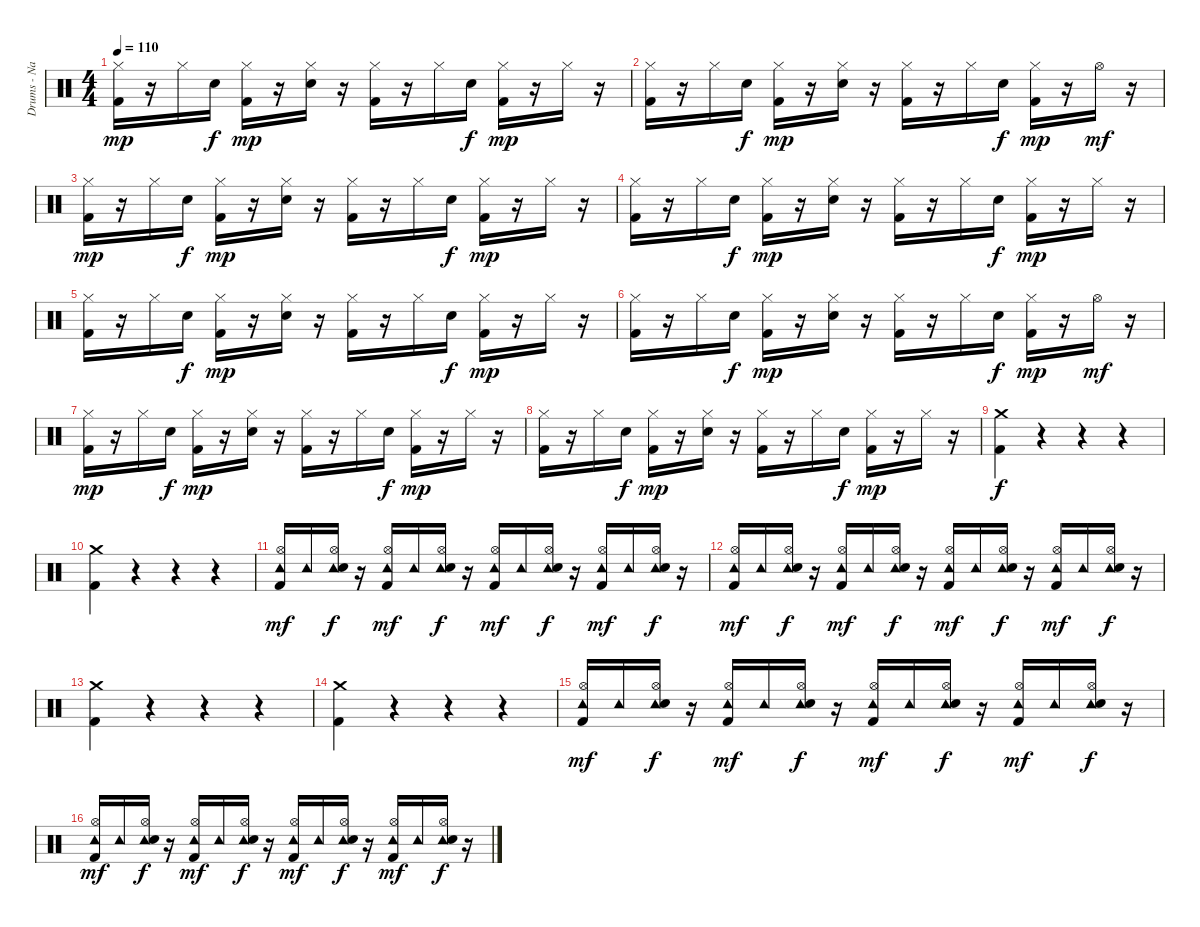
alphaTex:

\track ("Drums - Nathan" "Drums - Na") {instrument percussion}
\staff {score}
\articulation defaults
\ts (4 4)
\tempo 110
\clef neutral
\ks c
("Hi-Hat (closed)" "Kick (hit) 2").16{dy mp} r.16 "Hi-Hat (closed)".16 "Electric Snare (hit)".16{dy f} ("Hi-Hat (closed)" "Kick (hit) 2").16{dy mp} r.16 ("Hi-Hat (closed)" "Electric Snare (hit)").16 r.16 ("Hi-Hat (closed)" "Kick (hit) 2").16 r.16 "Hi-Hat (closed)".16 "Electric Snare (hit)".16{dy f} ("Hi-Hat (closed)" "Kick (hit) 2").16{dy mp} r.16 "Hi-Hat (closed)".16 r.16 |
("Hi-Hat (closed)" "Kick (hit) 2").16 r.16 "Hi-Hat (closed)".16 "Electric Snare (hit)".16{dy f} ("Hi-Hat (closed)" "Kick (hit) 2").16{dy mp} r.16 ("Hi-Hat (closed)" "Electric Snare (hit)").16 r.16 ("Hi-Hat (closed)" "Kick (hit) 2").16 r.16 "Hi-Hat (closed)".16 "Electric Snare (hit)".16{dy f} ("Hi-Hat (closed)" "Kick (hit) 2").16{dy mp} r.16 "Hi-Hat (open)".16{dy mf} r.16 |
("Hi-Hat (closed)" "Kick (hit) 2").16{dy mp} r.16 "Hi-Hat (closed)".16 "Electric Snare (hit)".16{dy f} ("Hi-Hat (closed)" "Kick (hit) 2").16{dy mp} r.16 ("Hi-Hat (closed)" "Electric Snare (hit)").16 r.16 ("Hi-Hat (closed)" "Kick (hit) 2").16 r.16 "Hi-Hat (closed)".16 "Electric Snare (hit)".16{dy f} ("Hi-Hat (closed)" "Kick (hit) 2").16{dy mp} r.16 "Hi-Hat (closed)".16 r.16 |
("Hi-Hat (closed)" "Kick (hit) 2").16 r.16 "Hi-Hat (closed)".16 "Electric Snare (hit)".16{dy f} ("Hi-Hat (closed)" "Kick (hit) 2").16{dy mp} r.16 ("Hi-Hat (closed)" "Electric Snare (hit)").16 r.16 ("Hi-Hat (closed)" "Kick (hit) 2").16 r.16 "Hi-Hat (closed)".16 "Electric Snare (hit)".16{dy f} ("Hi-Hat (closed)" "Kick (hit) 2").16{dy mp} r.16 "Hi-Hat (closed)".16 r.16 |
("Hi-Hat (closed)" "Kick (hit) 2").16 r.16 "Hi-Hat (closed)".16 "Electric Snare (hit)".16{dy f} ("Hi-Hat (closed)" "Kick (hit) 2").16{dy mp} r.16 ("Hi-Hat (closed)" "Electric Snare (hit)").16 r.16 ("Hi-Hat (closed)" "Kick (hit) 2").16 r.16 "Hi-Hat (closed)".16 "Electric Snare (hit)".16{dy f} ("Hi-Hat (closed)" "Kick (hit) 2").16{dy mp} r.16 "Hi-Hat (closed)".16 r.16 |
("Hi-Hat (closed)" "Kick (hit) 2").16 r.16 "Hi-Hat (closed)".16 "Electric Snare (hit)".16{dy f} ("Hi-Hat (closed)" "Kick (hit) 2").16{dy mp} r.16 ("Hi-Hat (closed)" "Electric Snare (hit)").16 r.16 ("Hi-Hat (closed)" "Kick (hit) 2").16 r.16 "Hi-Hat (closed)".16 "Electric Snare (hit)".16{dy f} ("Hi-Hat (closed)" "Kick (hit) 2").16{dy mp} r.16 "Hi-Hat (open)".16{dy mf} r.16 |
("Hi-Hat (closed)" "Kick (hit) 2").16{dy mp} r.16 "Hi-Hat (closed)".16 "Electric Snare (hit)".16{dy f} ("Hi-Hat (closed)" "Kick (hit) 2").16{dy mp} r.16 ("Hi-Hat (closed)" "Electric Snare (hit)").16 r.16 ("Hi-Hat (closed)" "Kick (hit) 2").16 r.16 "Hi-Hat (closed)".16 "Electric Snare (hit)".16{dy f} ("Hi-Hat (closed)" "Kick (hit) 2").16{dy mp} r.16 "Hi-Hat (closed)".16 r.16 |
("Hi-Hat (closed)" "Kick (hit) 2").16 r.16 "Hi-Hat (closed)".16 "Electric Snare (hit)".16{dy f} ("Hi-Hat (closed)" "Kick (hit) 2").16{dy mp} r.16 ("Hi-Hat (closed)" "Electric Snare (hit)").16 r.16 ("Hi-Hat (closed)" "Kick (hit) 2").16 r.16 "Hi-Hat (closed)".16 "Electric Snare (hit)".16{dy f} ("Hi-Hat (closed)" "Kick (hit) 2").16{dy mp} r.16 "Hi-Hat (closed)".16 r.16 |
("Crash medium (hit)" "Kick (hit) 2").4{dy f} r.4 r.4 r.4 |
("Crash medium (hit)" "Kick (hit) 2").4 r.4 r.4 r.4 |
("Hi-Hat (open)" "Tambourine (hit)" "Kick (hit) 2").16{dy mf} "Tambourine (hit)".16 ("Hi-Hat (open)" "Tambourine (hit)" "Electric Snare (hit)").16{dy f} r.16 ("Hi-Hat (open)" "Tambourine (hit)" "Kick (hit) 2").16{dy mf} "Tambourine (hit)".16 ("Hi-Hat (open)" "Tambourine (hit)" "Electric Snare (hit)").16{dy f} r.16 ("Hi-Hat (open)" "Tambourine (hit)" "Kick (hit) 2").16{dy mf} "Tambourine (hit)".16 ("Hi-Hat (open)" "Tambourine (hit)" "Electric Snare (hit)").16{dy f} r.16 ("Hi-Hat (open)" "Tambourine (hit)" "Kick (hit) 2").16{dy mf} "Tambourine (hit)".16 ("Hi-Hat (open)" "Tambourine (hit)" "Electric Snare (hit)").16{dy f} r.16 |
("Hi-Hat (open)" "Tambourine (hit)" "Kick (hit) 2").16{dy mf} "Tambourine (hit)".16 ("Hi-Hat (open)" "Tambourine (hit)" "Electric Snare (hit)").16{dy f} r.16 ("Hi-Hat (open)" "Tambourine (hit)" "Kick (hit) 2").16{dy mf} "Tambourine (hit)".16 ("Hi-Hat (open)" "Tambourine (hit)" "Electric Snare (hit)").16{dy f} r.16 ("Hi-Hat (open)" "Tambourine (hit)" "Kick (hit) 2").16{dy mf} "Tambourine (hit)".16 ("Hi-Hat (open)" "Tambourine (hit)" "Electric Snare (hit)").16{dy f} r.16 ("Hi-Hat (open)" "Tambourine (hit)" "Kick (hit) 2").16{dy mf} "Tambourine (hit)".16 ("Hi-Hat (open)" "Tambourine (hit)" "Electric Snare (hit)").16{dy f} r.16 |
("Crash medium (hit)" "Kick (hit) 2").4 r.4 r.4 r.4 |
("Crash medium (hit)" "Kick (hit) 2").4 r.4 r.4 r.4 |
("Hi-Hat (open)" "Tambourine (hit)" "Kick (hit) 2").16{dy mf} "Tambourine (hit)".16 ("Hi-Hat (open)" "Tambourine (hit)" "Electric Snare (hit)").16{dy f} r.16 ("Hi-Hat (open)" "Tambourine (hit)" "Kick (hit) 2").16{dy mf} "Tambourine (hit)".16 ("Hi-Hat (open)" "Tambourine (hit)" "Electric Snare (hit)").16{dy f} r.16 ("Hi-Hat (open)" "Tambourine (hit)" "Kick (hit) 2").16{dy mf} "Tambourine (hit)".16 ("Hi-Hat (open)" "Tambourine (hit)" "Electric Snare (hit)").16{dy f} r.16 ("Hi-Hat (open)" "Tambourine (hit)" "Kick (hit) 2").16{dy mf} "Tambourine (hit)".16 ("Hi-Hat (open)" "Tambourine (hit)" "Electric Snare (hit)").16{dy f} r.16 |
("Hi-Hat (open)" "Tambourine (hit)" "Kick (hit) 2").16{dy mf} "Tambourine (hit)".16 ("Hi-Hat (open)" "Tambourine (hit)" "Electric Snare (hit)").16{dy f} r.16 ("Hi-Hat (open)" "Tambourine (hit)" "Kick (hit) 2").16{dy mf} "Tambourine (hit)".16 ("Hi-Hat (open)" "Tambourine (hit)" "Electric Snare (hit)").16{dy f} r.16 ("Hi-Hat (open)" "Tambourine (hit)" "Kick (hit) 2").16{dy mf} "Tambourine (hit)".16 ("Hi-Hat (open)" "Tambourine (hit)" "Electric Snare (hit)").16{dy f} r.16 ("Hi-Hat (open)" "Tambourine (hit)" "Kick (hit) 2").16{dy mf} "Tambourine (hit)".16 ("Hi-Hat (open)" "Tambourine (hit)" "Electric Snare (hit)").16{dy f} r.16
